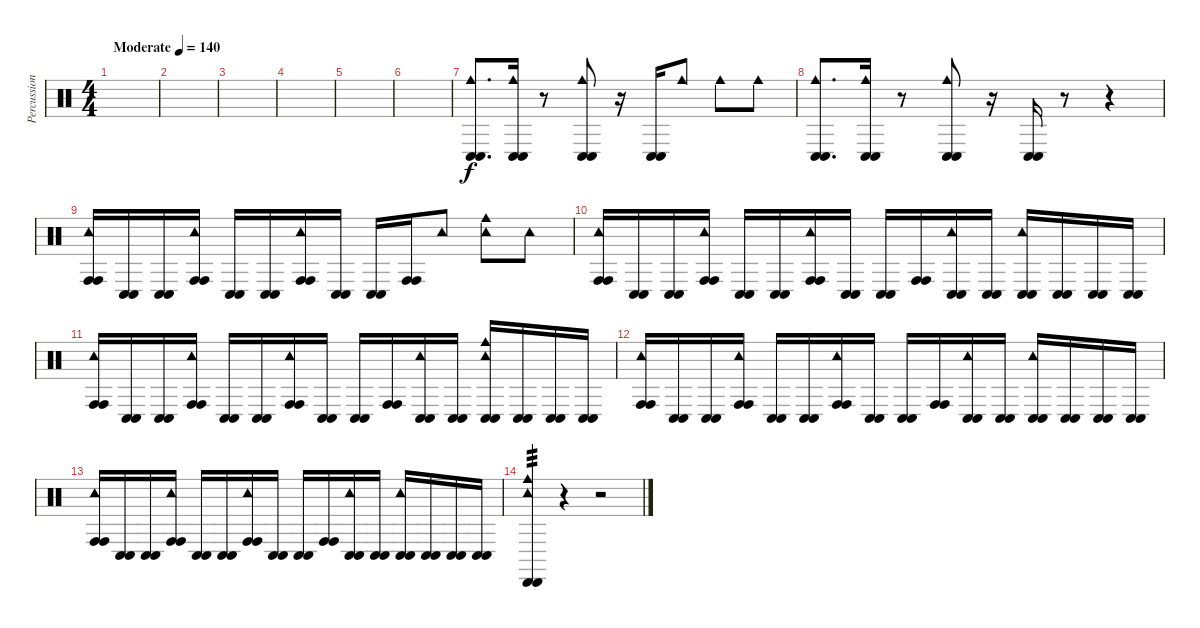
\track ("Percussion" "Percussion") {mute instrument percussion}
\staff {score}
\articulation defaults
\ts (4 4)
\tempo (140 "Moderate")
\clef neutral
\ks c
|
|
|
|
|
|
("Cowbell medium (hit)" "Conga low (hit)" "Conga low (hit)").8{d} ("Cowbell medium (hit)" "Conga low (hit)" "Conga low (hit)").16 r.8 ("Cowbell medium (hit)" "Conga low (hit)" "Conga low (hit)").8 r.16 ("Conga low (hit)" "Conga low (hit)").16 "Cowbell medium (hit)".8 "Cowbell medium (hit)".8 "Cowbell medium (hit)".8 |
("Cowbell medium (hit)" "Conga low (hit)" "Conga low (hit)").8{d} ("Cowbell medium (hit)" "Conga low (hit)" "Conga low (hit)").16 r.8 ("Cowbell medium (hit)" "Conga low (hit)" "Conga low (hit)").8 r.16 ("Conga low (hit)" "Conga low (hit)").16 r.8 r.4 |
("Tambourine (hit)" "Conga high (hit)" "Conga high (hit)").16 ("Conga low (hit)" "Conga low (hit)").16 ("Conga low (hit)" "Conga low (hit)").16 ("Tambourine (hit)" "Conga high (hit)" "Conga high (hit)").16 ("Conga low (hit)" "Conga low (hit)").16 ("Conga low (hit)" "Conga low (hit)").16 ("Tambourine (hit)" "Conga high (hit)" "Conga high (hit)").16 ("Conga low (hit)" "Conga low (hit)").16 ("Conga low (hit)" "Conga low (hit)").16 ("Conga high (hit)" "Conga high (hit)").16 "Tambourine (hit)".8 ("Tambourine (hit)" "Cowbell medium (hit)").8 "Tambourine (hit)".8 |
("Tambourine (hit)" "Conga high (hit)" "Conga high (hit)").16 ("Conga low (hit)" "Conga low (hit)").16 ("Conga low (hit)" "Conga low (hit)").16 ("Tambourine (hit)" "Conga high (hit)" "Conga high (hit)").16 ("Conga low (hit)" "Conga low (hit)").16 ("Conga low (hit)" "Conga low (hit)").16 ("Tambourine (hit)" "Conga high (hit)" "Conga high (hit)").16 ("Conga low (hit)" "Conga low (hit)").16 ("Conga low (hit)" "Conga low (hit)").16 ("Conga high (hit)" "Conga high (hit)").16 ("Tambourine (hit)" "Conga low (hit)" "Conga low (hit)").16 ("Conga low (hit)" "Conga low (hit)").16 ("Tambourine (hit)" "Conga low (hit)" "Conga low (hit)").16 ("Conga low (hit)" "Conga low (hit)").16 ("Conga low (hit)" "Conga low (hit)").16 ("Conga low (hit)" "Conga low (hit)").16 |
("Tambourine (hit)" "Conga high (hit)" "Conga high (hit)").16 ("Conga low (hit)" "Conga low (hit)").16 ("Conga low (hit)" "Conga low (hit)").16 ("Tambourine (hit)" "Conga high (hit)" "Conga high (hit)").16 ("Conga low (hit)" "Conga low (hit)").16 ("Conga low (hit)" "Conga low (hit)").16 ("Tambourine (hit)" "Conga high (hit)" "Conga high (hit)").16 ("Conga low (hit)" "Conga low (hit)").16 ("Conga low (hit)" "Conga low (hit)").16 ("Conga high (hit)" "Conga high (hit)").16 ("Tambourine (hit)" "Conga low (hit)" "Conga low (hit)").16 ("Conga low (hit)" "Conga low (hit)").16 ("Tambourine (hit)" "Cowbell medium (hit)" "Conga low (hit)" "Conga low (hit)").16 ("Conga low (hit)" "Conga low (hit)").16 ("Conga low (hit)" "Conga low (hit)").16 ("Conga low (hit)" "Conga low (hit)").16 |
("Tambourine (hit)" "Conga high (hit)" "Conga high (hit)").16 ("Conga low (hit)" "Conga low (hit)").16 ("Conga low (hit)" "Conga low (hit)").16 ("Tambourine (hit)" "Conga high (hit)" "Conga high (hit)").16 ("Conga low (hit)" "Conga low (hit)").16 ("Conga low (hit)" "Conga low (hit)").16 ("Tambourine (hit)" "Conga high (hit)" "Conga high (hit)").16 ("Conga low (hit)" "Conga low (hit)").16 ("Conga low (hit)" "Conga low (hit)").16 ("Conga high (hit)" "Conga high (hit)").16 ("Tambourine (hit)" "Conga low (hit)" "Conga low (hit)").16 ("Conga low (hit)" "Conga low (hit)").16 ("Tambourine (hit)" "Conga low (hit)" "Conga low (hit)").16 ("Conga low (hit)" "Conga low (hit)").16 ("Conga low (hit)" "Conga low (hit)").16 ("Conga low (hit)" "Conga low (hit)").16 |
("Tambourine (hit)" "Conga high (hit)" "Conga high (hit)").16 ("Conga low (hit)" "Conga low (hit)").16 ("Conga low (hit)" "Conga low (hit)").16 ("Tambourine (hit)" "Conga high (hit)" "Conga high (hit)").16 ("Conga low (hit)" "Conga low (hit)").16 ("Conga low (hit)" "Conga low (hit)").16 ("Tambourine (hit)" "Conga high (hit)" "Conga high (hit)").16 ("Conga low (hit)" "Conga low (hit)").16 ("Conga low (hit)" "Conga low (hit)").16 ("Conga high (hit)" "Conga high (hit)").16 ("Tambourine (hit)" "Conga low (hit)" "Conga low (hit)").16 ("Conga low (hit)" "Conga low (hit)").16 ("Tambourine (hit)" "Conga low (hit)" "Conga low (hit)").16 ("Conga low (hit)" "Conga low (hit)").16 ("Conga low (hit)" "Conga low (hit)").16 ("Conga low (hit)" "Conga low (hit)").16 |
("Tambourine (hit)" "Cowbell medium (hit)" "Cabasa (hit)" "Cabasa (hit)").4{tp 3} r.4 r.2
